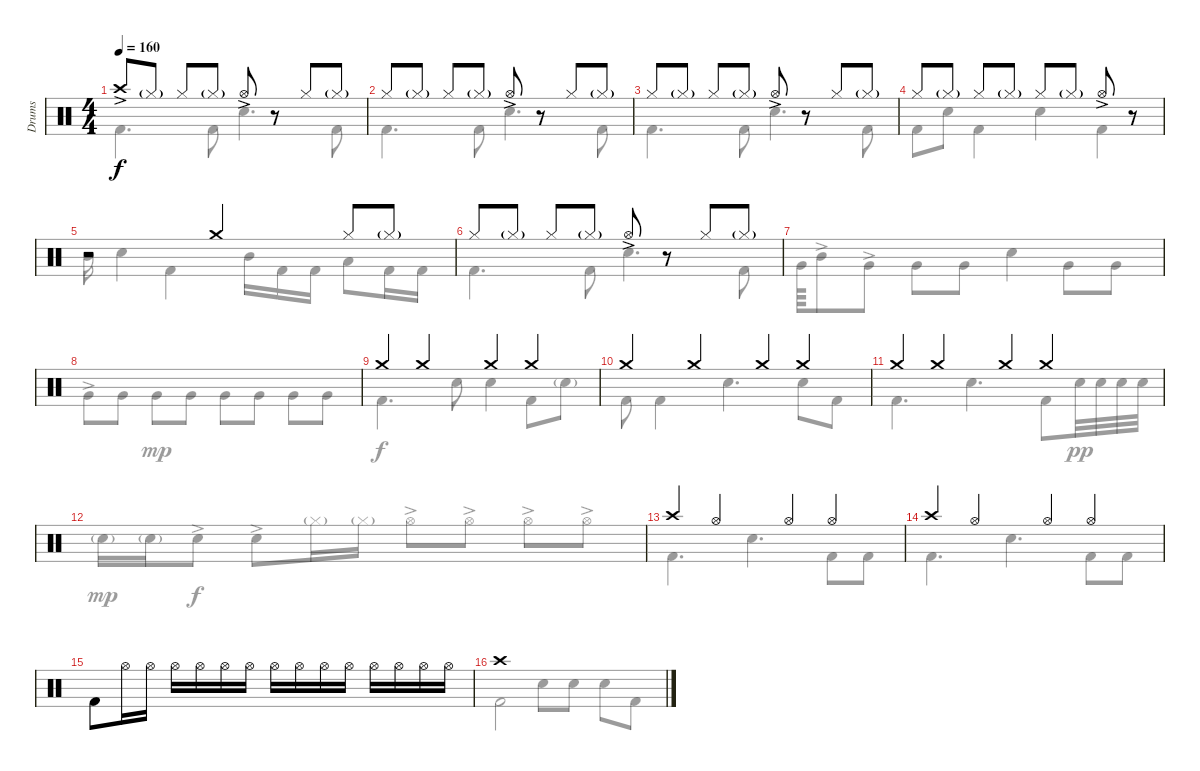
\track ("Drums" "Drums") {instrument percussion}
\staff {score}
\articulation defaults
\voice
\ts (4 4)
\tempo 160
\clef neutral
\ks c "Crash high (hit)"{ac}.8{dy f} "Hi-Hat (closed)"{g}.8 "Hi-Hat (closed)".8 "Hi-Hat (closed)"{g}.8 "Hi-Hat (open)"{ac}.8
r.8 "Hi-Hat (closed)".8 "Hi-Hat (closed)"{g}.8 |
"Hi-Hat (closed)".8 "Hi-Hat (closed)"{g}.8 "Hi-Hat (closed)".8 "Hi-Hat (closed)"{g}.8 "Hi-Hat (open)"{ac}.8 r.8 "Hi-Hat (closed)".8 "Hi-Hat (closed)"{g}.8 |
"Hi-Hat (closed)".8 "Hi-Hat (closed)"{g}.8 "Hi-Hat (closed)".8 "Hi-Hat (closed)"{g}.8 "Hi-Hat (open)"{ac}.8 r.8 "Hi-Hat (closed)".8 "Hi-Hat (closed)"{g}.8 |
"Hi-Hat (closed)".8 "Hi-Hat (closed)"{g}.8 "Hi-Hat (closed)".8 "Hi-Hat (closed)"{g}.8 "Hi-Hat (closed)".8 "Hi-Hat (closed)"{g}.8 "Hi-Hat (open)"{ac}.8 r.8 |
r.2 "Crash medium (hit)".4 "Hi-Hat (closed)".8 "Hi-Hat (closed)"{g}.8 |
"Hi-Hat (closed)".8 "Hi-Hat (closed)"{g}.8 "Hi-Hat (closed)".8 "Hi-Hat (closed)"{g}.8 "Hi-Hat (open)"{ac}.8 r.8 "Hi-Hat (closed)".8 "Hi-Hat (closed)"{g}.8 |
|
|
"Crash medium (hit)".4 "Crash medium (hit)".4 "Crash medium (hit)".4 "Crash medium (hit)".4 |
"Crash medium (hit)".4 "Crash medium (hit)".4 "Crash medium (hit)".4 "Crash medium (hit)".4 |
"Crash medium (hit)".4 "Crash medium (hit)".4 "Crash medium (hit)".4 "Crash medium (hit)".4 |
|
"Crash high (hit)".4 "Hi-Hat (open)".4 "Hi-Hat (open)".4 "Hi-Hat (open)".4 |
"Crash high (hit)".4 "Hi-Hat (open)".4 "Hi-Hat (open)".4 "Hi-Hat (open)".4 |
"Kick (hit) 2".8 "Hi-Hat (open)".16 "Hi-Hat (open)".16 "Hi-Hat (open)".16 "Hi-Hat (open)".16 "Hi-Hat (open)".16 "Hi-Hat (open)".16 "Hi-Hat (open)".16 "Hi-Hat (open)".16 "Hi-Hat (open)".16 "Hi-Hat (open)".16 "Hi-Hat (open)".16 "Hi-Hat (open)".16 "Hi-Hat (open)".16 "Hi-Hat (open)".16 |
"Crash high (hit)".1
\voice
\clef neutral
\ottava regular
\simile none
\ks c "Kick (hit) 2".4{d dy f} "Kick (hit) 2".8 "Snare (hit) 2".4{d} "Kick (hit) 2".8
|
"Kick (hit) 2".4{d} "Kick (hit) 2".8 "Snare (hit) 2".4{d} "Kick (hit) 2".8 |
"Kick (hit) 2".4{d} "Kick (hit) 2".8 "Snare (hit) 2".4{d} "Kick (hit) 2".8 |
"Kick (hit) 2".8 "Snare (hit) 2".8 "Kick (hit) 2".4 "Snare (hit) 2".4 "Kick (hit) 2".4 |
"Mid Tom (hit)".16 "Snare (hit) 2".4 "Kick (hit) 2".4 "Mid Tom (hit)".16 "Kick (hit) 2".16 "Kick (hit) 2".16 "Low Tom (hit)".8 "Kick (hit) 2".16 "Kick (hit) 2".16 |
"Kick (hit) 2".4{d} "Kick (hit) 2".8 "Snare (hit) 2".4{d} "Kick (hit) 2".8 |
"Very Low Tom (hit)".64 "Mid Tom (hit)"{ac}.8 "Very Low Tom (hit)"{ac}.8 "Very Low Tom (hit)".8 "Very Low Tom (hit)".8 "Snare (hit) 2".4 "Very Low Tom (hit)".8 "Very Low Tom (hit)".8 |
"Very Low Tom (hit)"{ac}.8 "Very Low Tom (hit)".8 "Very Low Tom (hit)".8{dy mp} "Very Low Tom (hit)".8 "Very Low Tom (hit)".8 "Very Low Tom (hit)".8 "Very Low Tom (hit)".8 "Very Low Tom (hit)".8 |
"Kick (hit) 2".4{d dy f} "Snare (hit) 2".8 "Snare (hit) 2".4 "Kick (hit) 2".8 "Snare (hit) 2"{g}.8 |
"Kick (hit) 2".8 "Kick (hit) 2".4 "Snare (hit) 2".4{d} "Snare (hit) 2".8 "Kick (hit) 2".8 |
"Kick (hit) 2".4{d} "Snare (hit) 2".4{d} "Kick (hit) 2".8 "Snare (hit) 2".32{dy pp} "Snare (hit) 2".32 "Snare (hit) 2".32 "Snare (hit) 2".32 |
"Snare (hit) 2"{g}.16{dy mp} "Snare (hit) 2"{g}.16 "Snare (hit) 2"{ac}.8{dy f} "Snare (hit) 2"{ac}.8 "Hi-Hat (closed)"{g}.16 "Hi-Hat (closed)"{g}.16 "Hi-Hat (open)"{ac}.8 "Hi-Hat (open)"{ac}.8 "Hi-Hat (open)"{ac}.8 "Hi-Hat (open)"{ac}.8 |
"Kick (hit) 2".4{d} "Snare (hit) 2".4{d} "Kick (hit) 2".8 "Kick (hit) 2".8 |
"Kick (hit) 2".4{d} "Snare (hit) 2".4{d} "Kick (hit) 2".8 "Kick (hit) 2".8 |
|
"Kick (hit) 2".2 "Snare (hit) 2".8 "Snare (hit) 2".8 "Snare (hit) 2".8 "Kick (hit) 2".8
